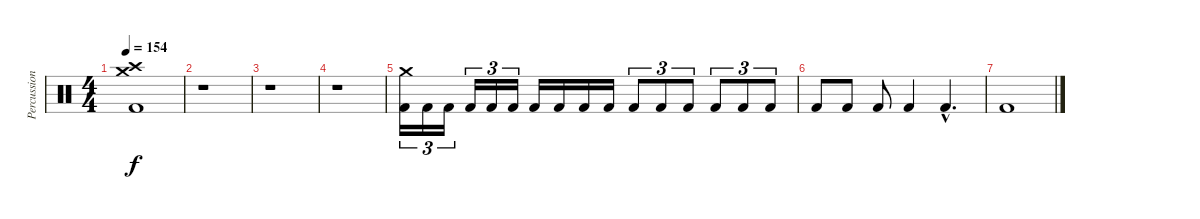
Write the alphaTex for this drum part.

\track ("Percussion" "Percussion") {instrument percussion}
\staff {score}
\articulation defaults
\ts (4 4)
\section ("" "")
\tempo 154
\clef neutral
\ks c
("Crash high (hit)" "Crash medium (hit)" "Kick (hit) 2").1{dy f} |
r.1 |
r.1 |
r.1 |
("Crash medium (hit)" "Kick (hit) 2").16{tu (3 2)} "Kick (hit) 2".16{tu (3 2)} "Kick (hit) 2".16{tu (3 2)} "Kick (hit) 2".16{tu (3 2)} "Kick (hit) 2".16{tu (3 2)} "Kick (hit) 2".16{tu (3 2)} "Kick (hit) 2".16 "Kick (hit) 2".16 "Kick (hit) 2".16 "Kick (hit) 2".16 "Kick (hit) 2".8{tu (3 2)} "Kick (hit) 2".8{tu (3 2)} "Kick (hit) 2".8{tu (3 2)} "Kick (hit) 2".8{tu (3 2)} "Kick (hit) 2".8{tu (3 2)} "Kick (hit) 2".8{tu (3 2)} |
"Kick (hit) 2".8 "Kick (hit) 2".8 "Kick (hit) 2".8 "Kick (hit) 2".4 "Kick (hit) 2"{hac}.4{d} |
"Kick (hit) 2".1
